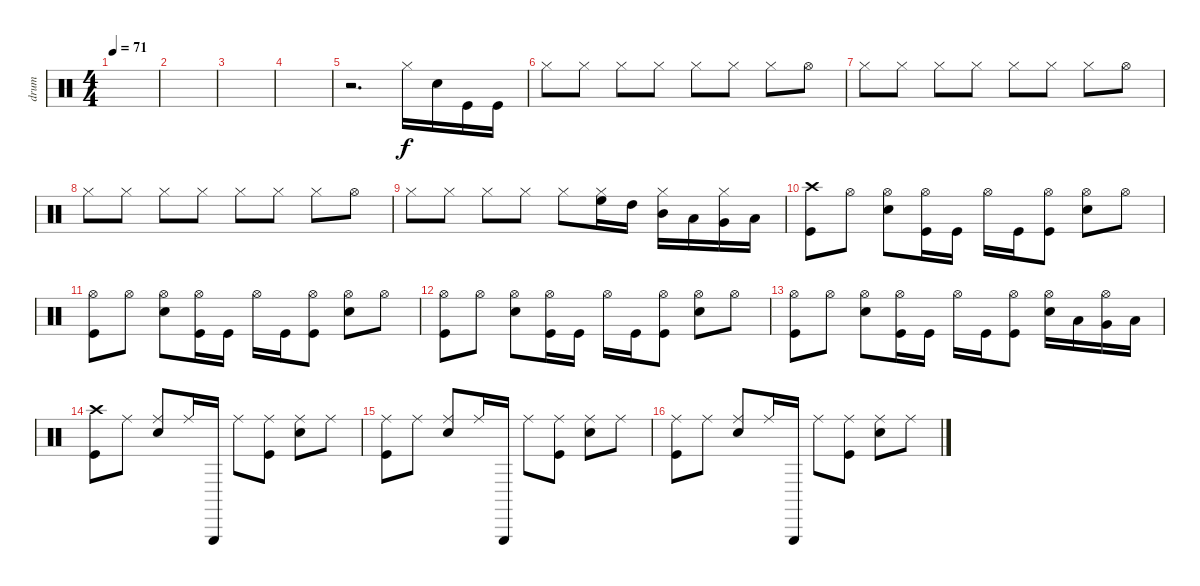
\track ("drum" "drum") {instrument percussion}
\staff {score}
\articulation defaults
\ts (4 4)
\tempo 71
\clef neutral
\ks c
|
|
|
|
r.2{d} "Hi-Hat (closed)".16 "Snare (hit) 2".16 "Kick (hit)".16 "Kick (hit)".16 |
"Hi-Hat (closed)".8 "Hi-Hat (closed)".8 "Hi-Hat (closed)".8 "Hi-Hat (closed)".8 "Hi-Hat (closed)".8 "Hi-Hat (closed)".8 "Hi-Hat (closed)".8 "Hi-Hat (open)".8 |
"Hi-Hat (closed)".8 "Hi-Hat (closed)".8 "Hi-Hat (closed)".8 "Hi-Hat (closed)".8 "Hi-Hat (closed)".8 "Hi-Hat (closed)".8 "Hi-Hat (closed)".8 "Hi-Hat (open)".8 |
"Hi-Hat (closed)".8 "Hi-Hat (closed)".8 "Hi-Hat (closed)".8 "Hi-Hat (closed)".8 "Hi-Hat (closed)".8 "Hi-Hat (closed)".8 "Hi-Hat (closed)".8 "Hi-Hat (open)".8 |
"Hi-Hat (closed)".8 "Hi-Hat (closed)".8 "Hi-Hat (closed)".8 "Hi-Hat (closed)".8 "Hi-Hat (closed)".8 ("Hi-Hat (closed)" "High Floor Tom (hit)").16 "High Tom (hit)".16 ("Hi-Hat (closed)" "Mid Tom (hit)").16 "Low Tom (hit)".16 ("Hi-Hat (closed)" "Very Low Tom (hit)").16 "Low Floor Tom (hit)".16 |
("Crash high (hit)" "Kick (hit)").8 "Hi-Hat (open)".8 ("Hi-Hat (open)" "Snare (hit) 2").8 ("Hi-Hat (open)" "Kick (hit)").16 "Kick (hit)".16 "Hi-Hat (open)".16 "Kick (hit)".16 ("Hi-Hat (open)" "Kick (hit)").8 ("Hi-Hat (open)" "Snare (hit) 2").8 "Hi-Hat (open)".8 |
("Hi-Hat (open)" "Kick (hit)").8 "Hi-Hat (open)".8 ("Hi-Hat (open)" "Snare (hit) 2").8 ("Hi-Hat (open)" "Kick (hit)").16 "Kick (hit)".16 "Hi-Hat (open)".16 "Kick (hit)".16 ("Hi-Hat (open)" "Kick (hit)").8 ("Hi-Hat (open)" "Snare (hit) 2").8 "Hi-Hat (open)".8 |
("Hi-Hat (open)" "Kick (hit)").8 "Hi-Hat (open)".8 ("Hi-Hat (open)" "Snare (hit) 2").8 ("Hi-Hat (open)" "Kick (hit)").16 "Kick (hit)".16 "Hi-Hat (open)".16 "Kick (hit)".16 ("Hi-Hat (open)" "Kick (hit)").8 ("Hi-Hat (open)" "Snare (hit) 2").8 "Hi-Hat (open)".8 |
("Hi-Hat (open)" "Kick (hit)").8 "Hi-Hat (open)".8 ("Hi-Hat (open)" "Snare (hit) 2").8 ("Hi-Hat (open)" "Kick (hit)").16 "Kick (hit)".16 "Hi-Hat (open)".16 "Kick (hit)".16 ("Hi-Hat (open)" "Kick (hit)").8 ("Hi-Hat (open)" "Snare (hit) 2").16 "Low Tom (hit)".16 ("Hi-Hat (open)" "Very Low Tom (hit)").16 "Low Floor Tom (hit)".16 |
("Crash high (hit)" "Kick (hit)").8 "Ride (middle)".8 ("Ride (middle)" "Snare (hit) 2").8 "Ride (middle)".16 "Triangle (hit)".16 "Ride (middle)".8 ("Ride (middle)" "Kick (hit)").8 ("Ride (middle)" "Snare (hit) 2").8 "Ride (middle)".8 |
("Ride (middle)" "Kick (hit)").8 "Ride (middle)".8 ("Ride (middle)" "Snare (hit) 2").8 "Ride (middle)".16 "Triangle (hit)".16 "Ride (middle)".8 ("Ride (middle)" "Kick (hit)").8 ("Ride (middle)" "Snare (hit) 2").8 "Ride (middle)".8 |
("Ride (middle)" "Kick (hit)").8 "Ride (middle)".8 ("Ride (middle)" "Snare (hit) 2").8 "Ride (middle)".16 "Triangle (hit)".16 "Ride (middle)".8 ("Ride (middle)" "Kick (hit)").8 ("Ride (middle)" "Snare (hit) 2").8 "Ride (middle)".8
